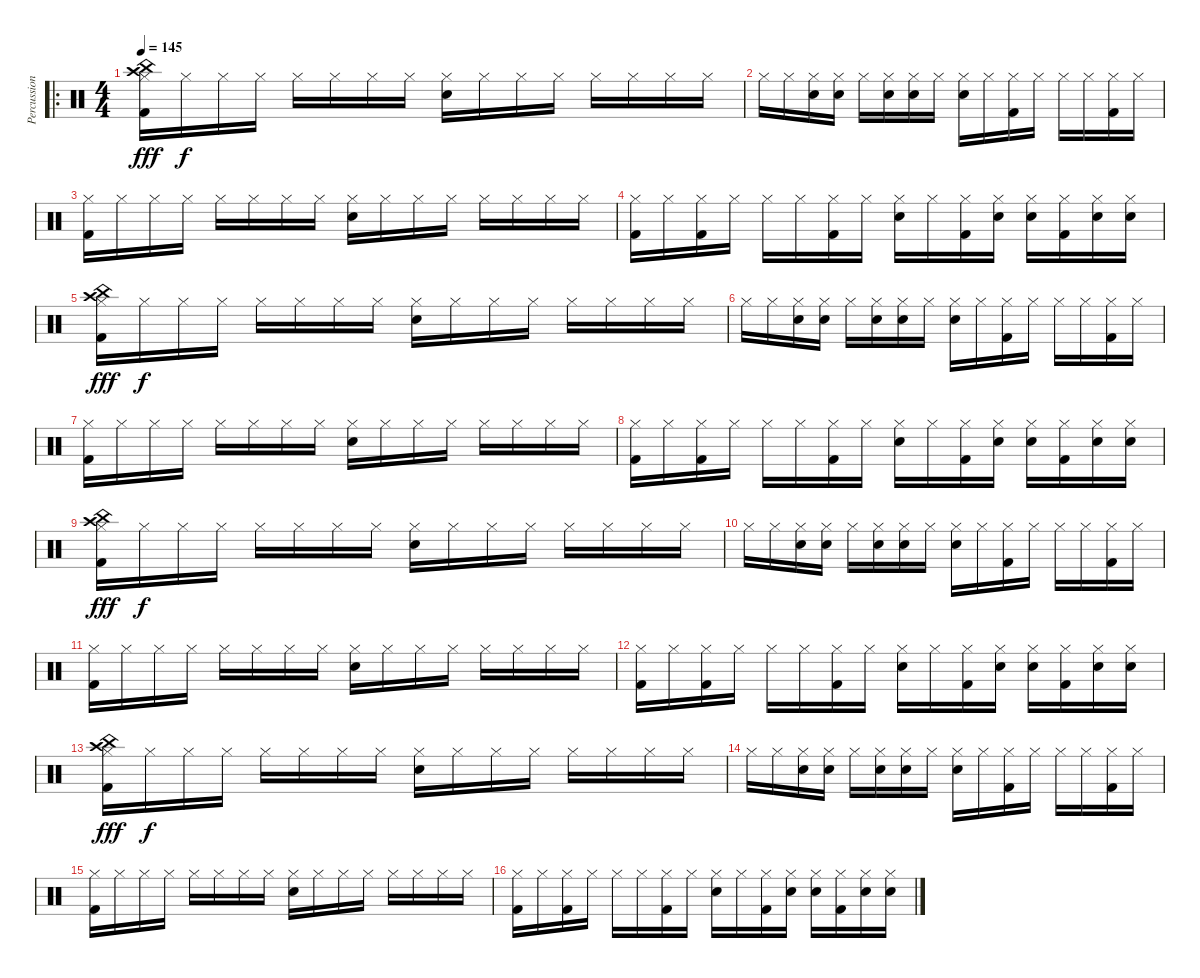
\track ("Percussions" "Percussion") {instrument percussion}
\staff {score}
\articulation defaults
\ro
\ts (4 4)
\tempo 145
\clef neutral
\ks c
("Crash high (hit)" "Hi-Hat (closed)" "China (hit)" "Kick (hit) 2").16{dy fff} "Hi-Hat (closed)".16{dy f} "Hi-Hat (closed)".16 "Hi-Hat (closed)".16 "Hi-Hat (closed)".16 "Hi-Hat (closed)".16 "Hi-Hat (closed)".16 "Hi-Hat (closed)".16 ("Hi-Hat (closed)" "Snare (hit) 2").16 "Hi-Hat (closed)".16 "Hi-Hat (closed)".16 "Hi-Hat (closed)".16 "Hi-Hat (closed)".16 "Hi-Hat (closed)".16 "Hi-Hat (closed)".16 "Hi-Hat (closed)".16 |
"Hi-Hat (closed)".16 "Hi-Hat (closed)".16 ("Hi-Hat (closed)" "Snare (hit) 2").16 ("Hi-Hat (closed)" "Snare (hit) 2").16 "Hi-Hat (closed)".16 ("Hi-Hat (closed)" "Snare (hit) 2").16 ("Hi-Hat (closed)" "Snare (hit) 2").16 "Hi-Hat (closed)".16 ("Hi-Hat (closed)" "Snare (hit) 2").16 "Hi-Hat (closed)".16 ("Hi-Hat (closed)" "Kick (hit) 2").16 "Hi-Hat (closed)".16 "Hi-Hat (closed)".16 "Hi-Hat (closed)".16 ("Hi-Hat (closed)" "Kick (hit) 2").16 "Hi-Hat (closed)".16 |
("Hi-Hat (closed)" "Kick (hit) 2").16 "Hi-Hat (closed)".16 "Hi-Hat (closed)".16 "Hi-Hat (closed)".16 "Hi-Hat (closed)".16 "Hi-Hat (closed)".16 "Hi-Hat (closed)".16 "Hi-Hat (closed)".16 ("Hi-Hat (closed)" "Snare (hit) 2").16 "Hi-Hat (closed)".16 "Hi-Hat (closed)".16 "Hi-Hat (closed)".16 "Hi-Hat (closed)".16 "Hi-Hat (closed)".16 "Hi-Hat (closed)".16 "Hi-Hat (closed)".16 |
("Hi-Hat (closed)" "Kick (hit) 2").16 "Hi-Hat (closed)".16 ("Hi-Hat (closed)" "Kick (hit) 2").16 "Hi-Hat (closed)".16 "Hi-Hat (closed)".16 "Hi-Hat (closed)".16 ("Hi-Hat (closed)" "Kick (hit) 2").16 "Hi-Hat (closed)".16 ("Hi-Hat (closed)" "Snare (hit) 2").16 "Hi-Hat (closed)".16 ("Hi-Hat (closed)" "Kick (hit) 2").16 ("Hi-Hat (closed)" "Snare (hit) 2").16 ("Hi-Hat (closed)" "Snare (hit) 2").16 ("Hi-Hat (closed)" "Kick (hit) 2").16 ("Hi-Hat (closed)" "Snare (hit) 2").16 ("Hi-Hat (closed)" "Snare (hit) 2").16 |
("Crash high (hit)" "Hi-Hat (closed)" "China (hit)" "Kick (hit) 2").16{dy fff} "Hi-Hat (closed)".16{dy f} "Hi-Hat (closed)".16 "Hi-Hat (closed)".16 "Hi-Hat (closed)".16 "Hi-Hat (closed)".16 "Hi-Hat (closed)".16 "Hi-Hat (closed)".16 ("Hi-Hat (closed)" "Snare (hit) 2").16 "Hi-Hat (closed)".16 "Hi-Hat (closed)".16 "Hi-Hat (closed)".16 "Hi-Hat (closed)".16 "Hi-Hat (closed)".16 "Hi-Hat (closed)".16 "Hi-Hat (closed)".16 |
"Hi-Hat (closed)".16 "Hi-Hat (closed)".16 ("Hi-Hat (closed)" "Snare (hit) 2").16 ("Hi-Hat (closed)" "Snare (hit) 2").16 "Hi-Hat (closed)".16 ("Hi-Hat (closed)" "Snare (hit) 2").16 ("Hi-Hat (closed)" "Snare (hit) 2").16 "Hi-Hat (closed)".16 ("Hi-Hat (closed)" "Snare (hit) 2").16 "Hi-Hat (closed)".16 ("Hi-Hat (closed)" "Kick (hit) 2").16 "Hi-Hat (closed)".16 "Hi-Hat (closed)".16 "Hi-Hat (closed)".16 ("Hi-Hat (closed)" "Kick (hit) 2").16 "Hi-Hat (closed)".16 |
("Hi-Hat (closed)" "Kick (hit) 2").16 "Hi-Hat (closed)".16 "Hi-Hat (closed)".16 "Hi-Hat (closed)".16 "Hi-Hat (closed)".16 "Hi-Hat (closed)".16 "Hi-Hat (closed)".16 "Hi-Hat (closed)".16 ("Hi-Hat (closed)" "Snare (hit) 2").16 "Hi-Hat (closed)".16 "Hi-Hat (closed)".16 "Hi-Hat (closed)".16 "Hi-Hat (closed)".16 "Hi-Hat (closed)".16 "Hi-Hat (closed)".16 "Hi-Hat (closed)".16 |
("Hi-Hat (closed)" "Kick (hit) 2").16 "Hi-Hat (closed)".16 ("Hi-Hat (closed)" "Kick (hit) 2").16 "Hi-Hat (closed)".16 "Hi-Hat (closed)".16 "Hi-Hat (closed)".16 ("Hi-Hat (closed)" "Kick (hit) 2").16 "Hi-Hat (closed)".16 ("Hi-Hat (closed)" "Snare (hit) 2").16 "Hi-Hat (closed)".16 ("Hi-Hat (closed)" "Kick (hit) 2").16 ("Hi-Hat (closed)" "Snare (hit) 2").16 ("Hi-Hat (closed)" "Snare (hit) 2").16 ("Hi-Hat (closed)" "Kick (hit) 2").16 ("Hi-Hat (closed)" "Snare (hit) 2").16 ("Hi-Hat (closed)" "Snare (hit) 2").16 |
("Crash high (hit)" "Hi-Hat (closed)" "China (hit)" "Kick (hit) 2").16{dy fff} "Hi-Hat (closed)".16{dy f} "Hi-Hat (closed)".16 "Hi-Hat (closed)".16 "Hi-Hat (closed)".16 "Hi-Hat (closed)".16 "Hi-Hat (closed)".16 "Hi-Hat (closed)".16 ("Hi-Hat (closed)" "Snare (hit) 2").16 "Hi-Hat (closed)".16 "Hi-Hat (closed)".16 "Hi-Hat (closed)".16 "Hi-Hat (closed)".16 "Hi-Hat (closed)".16 "Hi-Hat (closed)".16 "Hi-Hat (closed)".16 |
"Hi-Hat (closed)".16 "Hi-Hat (closed)".16 ("Hi-Hat (closed)" "Snare (hit) 2").16 ("Hi-Hat (closed)" "Snare (hit) 2").16 "Hi-Hat (closed)".16 ("Hi-Hat (closed)" "Snare (hit) 2").16 ("Hi-Hat (closed)" "Snare (hit) 2").16 "Hi-Hat (closed)".16 ("Hi-Hat (closed)" "Snare (hit) 2").16 "Hi-Hat (closed)".16 ("Hi-Hat (closed)" "Kick (hit) 2").16 "Hi-Hat (closed)".16 "Hi-Hat (closed)".16 "Hi-Hat (closed)".16 ("Hi-Hat (closed)" "Kick (hit) 2").16 "Hi-Hat (closed)".16 |
("Hi-Hat (closed)" "Kick (hit) 2").16 "Hi-Hat (closed)".16 "Hi-Hat (closed)".16 "Hi-Hat (closed)".16 "Hi-Hat (closed)".16 "Hi-Hat (closed)".16 "Hi-Hat (closed)".16 "Hi-Hat (closed)".16 ("Hi-Hat (closed)" "Snare (hit) 2").16 "Hi-Hat (closed)".16 "Hi-Hat (closed)".16 "Hi-Hat (closed)".16 "Hi-Hat (closed)".16 "Hi-Hat (closed)".16 "Hi-Hat (closed)".16 "Hi-Hat (closed)".16 |
("Hi-Hat (closed)" "Kick (hit) 2").16 "Hi-Hat (closed)".16 ("Hi-Hat (closed)" "Kick (hit) 2").16 "Hi-Hat (closed)".16 "Hi-Hat (closed)".16 "Hi-Hat (closed)".16 ("Hi-Hat (closed)" "Kick (hit) 2").16 "Hi-Hat (closed)".16 ("Hi-Hat (closed)" "Snare (hit) 2").16 "Hi-Hat (closed)".16 ("Hi-Hat (closed)" "Kick (hit) 2").16 ("Hi-Hat (closed)" "Snare (hit) 2").16 ("Hi-Hat (closed)" "Snare (hit) 2").16 ("Hi-Hat (closed)" "Kick (hit) 2").16 ("Hi-Hat (closed)" "Snare (hit) 2").16 ("Hi-Hat (closed)" "Snare (hit) 2").16 |
("Crash high (hit)" "Hi-Hat (closed)" "China (hit)" "Kick (hit) 2").16{dy fff} "Hi-Hat (closed)".16{dy f} "Hi-Hat (closed)".16 "Hi-Hat (closed)".16 "Hi-Hat (closed)".16 "Hi-Hat (closed)".16 "Hi-Hat (closed)".16 "Hi-Hat (closed)".16 ("Hi-Hat (closed)" "Snare (hit) 2").16 "Hi-Hat (closed)".16 "Hi-Hat (closed)".16 "Hi-Hat (closed)".16 "Hi-Hat (closed)".16 "Hi-Hat (closed)".16 "Hi-Hat (closed)".16 "Hi-Hat (closed)".16 |
"Hi-Hat (closed)".16 "Hi-Hat (closed)".16 ("Hi-Hat (closed)" "Snare (hit) 2").16 ("Hi-Hat (closed)" "Snare (hit) 2").16 "Hi-Hat (closed)".16 ("Hi-Hat (closed)" "Snare (hit) 2").16 ("Hi-Hat (closed)" "Snare (hit) 2").16 "Hi-Hat (closed)".16 ("Hi-Hat (closed)" "Snare (hit) 2").16 "Hi-Hat (closed)".16 ("Hi-Hat (closed)" "Kick (hit) 2").16 "Hi-Hat (closed)".16 "Hi-Hat (closed)".16 "Hi-Hat (closed)".16 ("Hi-Hat (closed)" "Kick (hit) 2").16 "Hi-Hat (closed)".16 |
("Hi-Hat (closed)" "Kick (hit) 2").16 "Hi-Hat (closed)".16 "Hi-Hat (closed)".16 "Hi-Hat (closed)".16 "Hi-Hat (closed)".16 "Hi-Hat (closed)".16 "Hi-Hat (closed)".16 "Hi-Hat (closed)".16 ("Hi-Hat (closed)" "Snare (hit) 2").16 "Hi-Hat (closed)".16 "Hi-Hat (closed)".16 "Hi-Hat (closed)".16 "Hi-Hat (closed)".16 "Hi-Hat (closed)".16 "Hi-Hat (closed)".16 "Hi-Hat (closed)".16 |
("Hi-Hat (closed)" "Kick (hit) 2").16 "Hi-Hat (closed)".16 ("Hi-Hat (closed)" "Kick (hit) 2").16 "Hi-Hat (closed)".16 "Hi-Hat (closed)".16 "Hi-Hat (closed)".16 ("Hi-Hat (closed)" "Kick (hit) 2").16 "Hi-Hat (closed)".16 ("Hi-Hat (closed)" "Snare (hit) 2").16 "Hi-Hat (closed)".16 ("Hi-Hat (closed)" "Kick (hit) 2").16 ("Hi-Hat (closed)" "Snare (hit) 2").16 ("Hi-Hat (closed)" "Snare (hit) 2").16 ("Hi-Hat (closed)" "Kick (hit) 2").16 ("Hi-Hat (closed)" "Snare (hit) 2").16 ("Hi-Hat (closed)" "Snare (hit) 2").16
